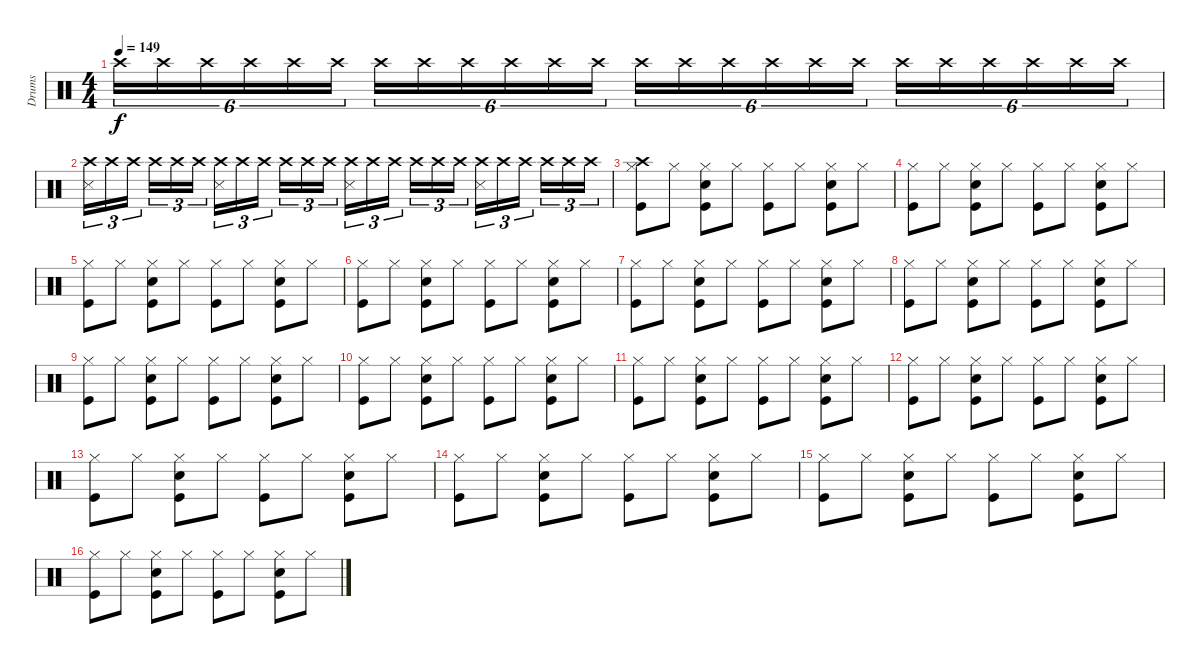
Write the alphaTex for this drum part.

\track ("Drums" "Drums") {instrument percussion}
\staff {score}
\articulation defaults
\ts (4 4)
\tempo 149
\clef neutral
\ks c "Crash high (hit)".16{tu (6 4) dy f} "Crash high (hit)".16{tu (6 4)} "Crash high (hit)".16{tu (6 4)} "Crash high (hit)".16{tu (6 4)} "Crash high (hit)".16{tu (6 4)} "Crash high (hit)".16{tu (6 4)} "Crash high (hit)".16{tu (6 4)} "Crash high (hit)".16{tu (6 4)} "Crash high (hit)".16{tu (6 4)} "Crash high (hit)".16{tu (6 4)} "Crash high (hit)".16{tu (6 4)} "Crash high (hit)".16{tu (6 4)} "Crash high (hit)".16{tu (6 4)} "Crash high (hit)".16{tu (6 4)} "Crash high (hit)".16{tu (6 4)} "Crash high (hit)".16{tu (6 4)} "Crash high (hit)".16{tu (6 4)} "Crash high (hit)".16{tu (6 4)} "Crash high (hit)".16{tu (6 4)} "Crash high (hit)".16{tu (6 4)} "Crash high (hit)".16{tu (6 4)} "Crash high (hit)".16{tu (6 4)} "Crash high (hit)".16{tu (6 4)} "Crash high (hit)".16{tu (6 4)}
|
("Crash high (hit)" "Snare (side stick) 3").16{tu (3 2)} "Crash high (hit)".16{tu (3 2)} "Crash high (hit)".16{tu (3 2)} "Crash high (hit)".16{tu (3 2)} "Crash high (hit)".16{tu (3 2)} "Crash high (hit)".16{tu (3 2)} ("Crash high (hit)" "Snare (side stick) 3").16{tu (3 2)} "Crash high (hit)".16{tu (3 2)} "Crash high (hit)".16{tu (3 2)} "Crash high (hit)".16{tu (3 2)} "Crash high (hit)".16{tu (3 2)} "Crash high (hit)".16{tu (3 2)} ("Crash high (hit)" "Snare (side stick) 3").16{tu (3 2)} "Crash high (hit)".16{tu (3 2)} "Crash high (hit)".16{tu (3 2)} "Crash high (hit)".16{tu (3 2)} "Crash high (hit)".16{tu (3 2)} "Crash high (hit)".16{tu (3 2)} ("Crash high (hit)" "Snare (side stick) 3").16{tu (3 2)} "Crash high (hit)".16{tu (3 2)} "Crash high (hit)".16{tu (3 2)} "Crash high (hit)".16{tu (3 2)} "Crash high (hit)".16{tu (3 2)} "Crash high (hit)".16{tu (3 2)} |
("Hi-Hat (closed)" "Kick (hit)" "Crash high (hit)").8 "Hi-Hat (closed)".8 ("Hi-Hat (closed)" "Kick (hit)" "Snare (hit) 2").8 "Hi-Hat (closed)".8 ("Hi-Hat (closed)" "Kick (hit)").8 "Hi-Hat (closed)".8 ("Hi-Hat (closed)" "Snare (hit) 2" "Kick (hit)").8 "Hi-Hat (closed)".8 |
("Hi-Hat (closed)" "Kick (hit)").8 "Hi-Hat (closed)".8 ("Hi-Hat (closed)" "Kick (hit)" "Snare (hit) 2").8 "Hi-Hat (closed)".8 ("Hi-Hat (closed)" "Kick (hit)").8 "Hi-Hat (closed)".8 ("Hi-Hat (closed)" "Kick (hit)" "Snare (hit) 2").8 "Hi-Hat (closed)".8 |
("Hi-Hat (closed)" "Kick (hit)").8 "Hi-Hat (closed)".8 ("Hi-Hat (closed)" "Kick (hit)" "Snare (hit) 2").8 "Hi-Hat (closed)".8 ("Hi-Hat (closed)" "Kick (hit)").8 "Hi-Hat (closed)".8 ("Hi-Hat (closed)" "Kick (hit)" "Snare (hit) 2").8 "Hi-Hat (closed)".8 |
("Hi-Hat (closed)" "Kick (hit)").8 "Hi-Hat (closed)".8 ("Hi-Hat (closed)" "Snare (hit) 2" "Kick (hit)").8 "Hi-Hat (closed)".8 ("Hi-Hat (closed)" "Kick (hit)").8 "Hi-Hat (closed)".8 ("Hi-Hat (closed)" "Kick (hit)" "Snare (hit) 2").8 "Hi-Hat (closed)".8 |
("Hi-Hat (closed)" "Kick (hit)").8 "Hi-Hat (closed)".8 ("Hi-Hat (closed)" "Kick (hit)" "Snare (hit) 2").8 "Hi-Hat (closed)".8 ("Hi-Hat (closed)" "Kick (hit)").8 "Hi-Hat (closed)".8 ("Hi-Hat (closed)" "Kick (hit)" "Snare (hit) 2").8 "Hi-Hat (closed)".8 |
("Hi-Hat (closed)" "Kick (hit)").8 "Hi-Hat (closed)".8 ("Hi-Hat (closed)" "Kick (hit)" "Snare (hit) 2").8 "Hi-Hat (closed)".8 ("Hi-Hat (closed)" "Kick (hit)").8 "Hi-Hat (closed)".8 ("Hi-Hat (closed)" "Kick (hit)" "Snare (hit) 2").8 "Hi-Hat (closed)".8 |
("Hi-Hat (closed)" "Kick (hit)").8 "Hi-Hat (closed)".8 ("Hi-Hat (closed)" "Kick (hit)" "Snare (hit) 2").8 "Hi-Hat (closed)".8 ("Hi-Hat (closed)" "Kick (hit)").8 "Hi-Hat (closed)".8 ("Hi-Hat (closed)" "Kick (hit)" "Snare (hit) 2").8 "Hi-Hat (closed)".8 |
("Hi-Hat (closed)" "Kick (hit)").8 "Hi-Hat (closed)".8 ("Hi-Hat (closed)" "Kick (hit)" "Snare (hit) 2").8 "Hi-Hat (closed)".8 ("Hi-Hat (closed)" "Kick (hit)").8 "Hi-Hat (closed)".8 ("Hi-Hat (closed)" "Kick (hit)" "Snare (hit) 2").8 "Hi-Hat (closed)".8 |
("Hi-Hat (closed)" "Kick (hit)").8 "Hi-Hat (closed)".8 ("Hi-Hat (closed)" "Kick (hit)" "Snare (hit) 2").8 "Hi-Hat (closed)".8 ("Hi-Hat (closed)" "Kick (hit)").8 "Hi-Hat (closed)".8 ("Hi-Hat (closed)" "Kick (hit)" "Snare (hit) 2").8 "Hi-Hat (closed)".8 |
("Hi-Hat (closed)" "Kick (hit)").8 "Hi-Hat (closed)".8 ("Hi-Hat (closed)" "Kick (hit)" "Snare (hit) 2").8 "Hi-Hat (closed)".8 ("Hi-Hat (closed)" "Kick (hit)").8 "Hi-Hat (closed)".8 ("Hi-Hat (closed)" "Kick (hit)" "Snare (hit) 2").8 "Hi-Hat (closed)".8 |
("Hi-Hat (closed)" "Kick (hit)").8 "Hi-Hat (closed)".8 ("Hi-Hat (closed)" "Kick (hit)" "Snare (hit) 2").8 "Hi-Hat (closed)".8 ("Hi-Hat (closed)" "Kick (hit)").8 "Hi-Hat (closed)".8 ("Hi-Hat (closed)" "Kick (hit)" "Snare (hit) 2").8 "Hi-Hat (closed)".8 |
("Hi-Hat (closed)" "Kick (hit)").8 "Hi-Hat (closed)".8 ("Hi-Hat (closed)" "Kick (hit)" "Snare (hit) 2").8 "Hi-Hat (closed)".8 ("Hi-Hat (closed)" "Kick (hit)").8 "Hi-Hat (closed)".8 ("Hi-Hat (closed)" "Kick (hit)" "Snare (hit) 2").8 "Hi-Hat (closed)".8 |
("Hi-Hat (closed)" "Kick (hit)").8 "Hi-Hat (closed)".8 ("Hi-Hat (closed)" "Kick (hit)" "Snare (hit) 2").8 "Hi-Hat (closed)".8 ("Hi-Hat (closed)" "Kick (hit)").8 "Hi-Hat (closed)".8 ("Hi-Hat (closed)" "Kick (hit)" "Snare (hit) 2").8 "Hi-Hat (closed)".8 |
("Hi-Hat (closed)" "Kick (hit)").8 "Hi-Hat (closed)".8 ("Hi-Hat (closed)" "Kick (hit)" "Snare (hit) 2").8 "Hi-Hat (closed)".8 ("Hi-Hat (closed)" "Kick (hit)").8 "Hi-Hat (closed)".8 ("Hi-Hat (closed)" "Kick (hit)" "Snare (hit) 2").8 "Hi-Hat (closed)".8
